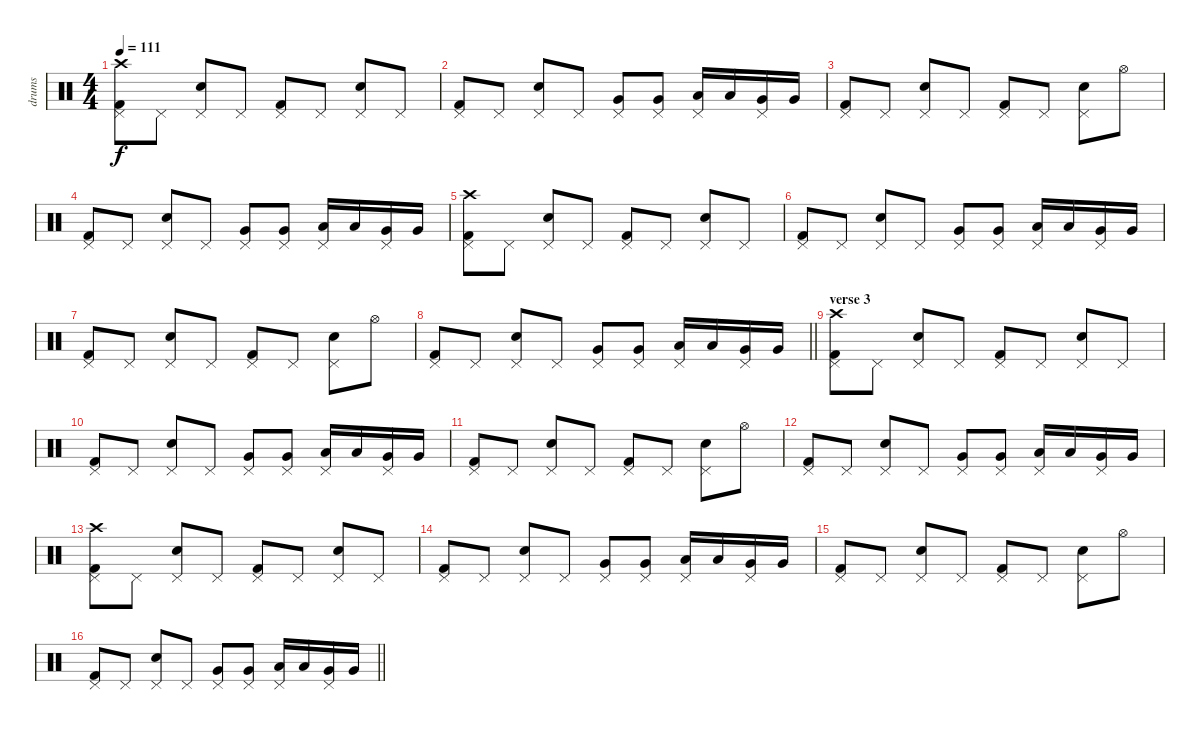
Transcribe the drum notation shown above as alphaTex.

\track ("drums" "drums") {instrument percussion}
\staff {score}
\articulation defaults
\ts (4 4)
\tempo 111
\clef neutral
\ks c
("Kick (hit) 2" "Pedal Hi-Hat (hit)" "Crash high (hit)").8{dy f} "Pedal Hi-Hat (hit)".8 ("Electric Snare (hit)" "Pedal Hi-Hat (hit)").8 "Pedal Hi-Hat (hit)".8 ("Kick (hit) 2" "Pedal Hi-Hat (hit)").8 "Pedal Hi-Hat (hit)".8 ("Electric Snare (hit)" "Pedal Hi-Hat (hit)").8 "Pedal Hi-Hat (hit)".8 |
("Kick (hit) 2" "Pedal Hi-Hat (hit)").8 "Pedal Hi-Hat (hit)".8 ("Electric Snare (hit)" "Pedal Hi-Hat (hit)").8 "Pedal Hi-Hat (hit)".8 ("Very Low Tom (hit)" "Pedal Hi-Hat (hit)").8 ("Very Low Tom (hit)" "Pedal Hi-Hat (hit)").8 ("Low Floor Tom (hit)" "Pedal Hi-Hat (hit)").16 "Low Floor Tom (hit)".16 ("Very Low Tom (hit)" "Pedal Hi-Hat (hit)").16 "Very Low Tom (hit)".16 |
("Kick (hit) 2" "Pedal Hi-Hat (hit)").8 "Pedal Hi-Hat (hit)".8 ("Electric Snare (hit)" "Pedal Hi-Hat (hit)").8 "Pedal Hi-Hat (hit)".8 ("Kick (hit) 2" "Pedal Hi-Hat (hit)").8 "Pedal Hi-Hat (hit)".8 ("Electric Snare (hit)" "Pedal Hi-Hat (hit)").8 "Hi-Hat (open)".8 |
("Kick (hit) 2" "Pedal Hi-Hat (hit)").8 "Pedal Hi-Hat (hit)".8 ("Electric Snare (hit)" "Pedal Hi-Hat (hit)").8 "Pedal Hi-Hat (hit)".8 ("Very Low Tom (hit)" "Pedal Hi-Hat (hit)").8 ("Very Low Tom (hit)" "Pedal Hi-Hat (hit)").8 ("Low Floor Tom (hit)" "Pedal Hi-Hat (hit)").16 "Low Floor Tom (hit)".16 ("Very Low Tom (hit)" "Pedal Hi-Hat (hit)").16 "Very Low Tom (hit)".16 |
("Kick (hit) 2" "Pedal Hi-Hat (hit)" "Crash high (hit)").8 "Pedal Hi-Hat (hit)".8 ("Electric Snare (hit)" "Pedal Hi-Hat (hit)").8 "Pedal Hi-Hat (hit)".8 ("Kick (hit) 2" "Pedal Hi-Hat (hit)").8 "Pedal Hi-Hat (hit)".8 ("Electric Snare (hit)" "Pedal Hi-Hat (hit)").8 "Pedal Hi-Hat (hit)".8 |
("Kick (hit) 2" "Pedal Hi-Hat (hit)").8 "Pedal Hi-Hat (hit)".8 ("Electric Snare (hit)" "Pedal Hi-Hat (hit)").8 "Pedal Hi-Hat (hit)".8 ("Very Low Tom (hit)" "Pedal Hi-Hat (hit)").8 ("Very Low Tom (hit)" "Pedal Hi-Hat (hit)").8 ("Low Floor Tom (hit)" "Pedal Hi-Hat (hit)").16 "Low Floor Tom (hit)".16 ("Very Low Tom (hit)" "Pedal Hi-Hat (hit)").16 "Very Low Tom (hit)".16 |
("Kick (hit) 2" "Pedal Hi-Hat (hit)").8 "Pedal Hi-Hat (hit)".8 ("Electric Snare (hit)" "Pedal Hi-Hat (hit)").8 "Pedal Hi-Hat (hit)".8 ("Kick (hit) 2" "Pedal Hi-Hat (hit)").8 "Pedal Hi-Hat (hit)".8 ("Electric Snare (hit)" "Pedal Hi-Hat (hit)").8 "Hi-Hat (open)".8 |
\barLineRight lightlight
("Kick (hit) 2" "Pedal Hi-Hat (hit)").8 "Pedal Hi-Hat (hit)".8 ("Electric Snare (hit)" "Pedal Hi-Hat (hit)").8 "Pedal Hi-Hat (hit)".8 ("Very Low Tom (hit)" "Pedal Hi-Hat (hit)").8 ("Very Low Tom (hit)" "Pedal Hi-Hat (hit)").8 ("Low Floor Tom (hit)" "Pedal Hi-Hat (hit)").16 "Low Floor Tom (hit)".16 ("Very Low Tom (hit)" "Pedal Hi-Hat (hit)").16 "Very Low Tom (hit)".16 |
\section ("" "verse 3")
("Kick (hit) 2" "Pedal Hi-Hat (hit)" "Crash high (hit)").8 "Pedal Hi-Hat (hit)".8 ("Electric Snare (hit)" "Pedal Hi-Hat (hit)").8 "Pedal Hi-Hat (hit)".8 ("Kick (hit) 2" "Pedal Hi-Hat (hit)").8 "Pedal Hi-Hat (hit)".8 ("Electric Snare (hit)" "Pedal Hi-Hat (hit)").8 "Pedal Hi-Hat (hit)".8 |
("Kick (hit) 2" "Pedal Hi-Hat (hit)").8 "Pedal Hi-Hat (hit)".8 ("Electric Snare (hit)" "Pedal Hi-Hat (hit)").8 "Pedal Hi-Hat (hit)".8 ("Very Low Tom (hit)" "Pedal Hi-Hat (hit)").8 ("Very Low Tom (hit)" "Pedal Hi-Hat (hit)").8 ("Low Floor Tom (hit)" "Pedal Hi-Hat (hit)").16 "Low Floor Tom (hit)".16 ("Very Low Tom (hit)" "Pedal Hi-Hat (hit)").16 "Very Low Tom (hit)".16 |
("Kick (hit) 2" "Pedal Hi-Hat (hit)").8 "Pedal Hi-Hat (hit)".8 ("Electric Snare (hit)" "Pedal Hi-Hat (hit)").8 "Pedal Hi-Hat (hit)".8 ("Kick (hit) 2" "Pedal Hi-Hat (hit)").8 "Pedal Hi-Hat (hit)".8 ("Electric Snare (hit)" "Pedal Hi-Hat (hit)").8 "Hi-Hat (open)".8 |
("Kick (hit) 2" "Pedal Hi-Hat (hit)").8 "Pedal Hi-Hat (hit)".8 ("Electric Snare (hit)" "Pedal Hi-Hat (hit)").8 "Pedal Hi-Hat (hit)".8 ("Very Low Tom (hit)" "Pedal Hi-Hat (hit)").8 ("Very Low Tom (hit)" "Pedal Hi-Hat (hit)").8 ("Low Floor Tom (hit)" "Pedal Hi-Hat (hit)").16 "Low Floor Tom (hit)".16 ("Very Low Tom (hit)" "Pedal Hi-Hat (hit)").16 "Very Low Tom (hit)".16 |
("Kick (hit) 2" "Pedal Hi-Hat (hit)" "Crash high (hit)").8 "Pedal Hi-Hat (hit)".8 ("Electric Snare (hit)" "Pedal Hi-Hat (hit)").8 "Pedal Hi-Hat (hit)".8 ("Kick (hit) 2" "Pedal Hi-Hat (hit)").8 "Pedal Hi-Hat (hit)".8 ("Electric Snare (hit)" "Pedal Hi-Hat (hit)").8 "Pedal Hi-Hat (hit)".8 |
("Kick (hit) 2" "Pedal Hi-Hat (hit)").8 "Pedal Hi-Hat (hit)".8 ("Electric Snare (hit)" "Pedal Hi-Hat (hit)").8 "Pedal Hi-Hat (hit)".8 ("Very Low Tom (hit)" "Pedal Hi-Hat (hit)").8 ("Very Low Tom (hit)" "Pedal Hi-Hat (hit)").8 ("Low Floor Tom (hit)" "Pedal Hi-Hat (hit)").16 "Low Floor Tom (hit)".16 ("Very Low Tom (hit)" "Pedal Hi-Hat (hit)").16 "Very Low Tom (hit)".16 |
("Kick (hit) 2" "Pedal Hi-Hat (hit)").8 "Pedal Hi-Hat (hit)".8 ("Electric Snare (hit)" "Pedal Hi-Hat (hit)").8 "Pedal Hi-Hat (hit)".8 ("Kick (hit) 2" "Pedal Hi-Hat (hit)").8 "Pedal Hi-Hat (hit)".8 ("Electric Snare (hit)" "Pedal Hi-Hat (hit)").8 "Hi-Hat (open)".8 |
\barLineRight lightlight
("Kick (hit) 2" "Pedal Hi-Hat (hit)").8 "Pedal Hi-Hat (hit)".8 ("Electric Snare (hit)" "Pedal Hi-Hat (hit)").8 "Pedal Hi-Hat (hit)".8 ("Very Low Tom (hit)" "Pedal Hi-Hat (hit)").8 ("Very Low Tom (hit)" "Pedal Hi-Hat (hit)").8 ("Low Floor Tom (hit)" "Pedal Hi-Hat (hit)").16 "Low Floor Tom (hit)".16 ("Very Low Tom (hit)" "Pedal Hi-Hat (hit)").16 "Very Low Tom (hit)".16
